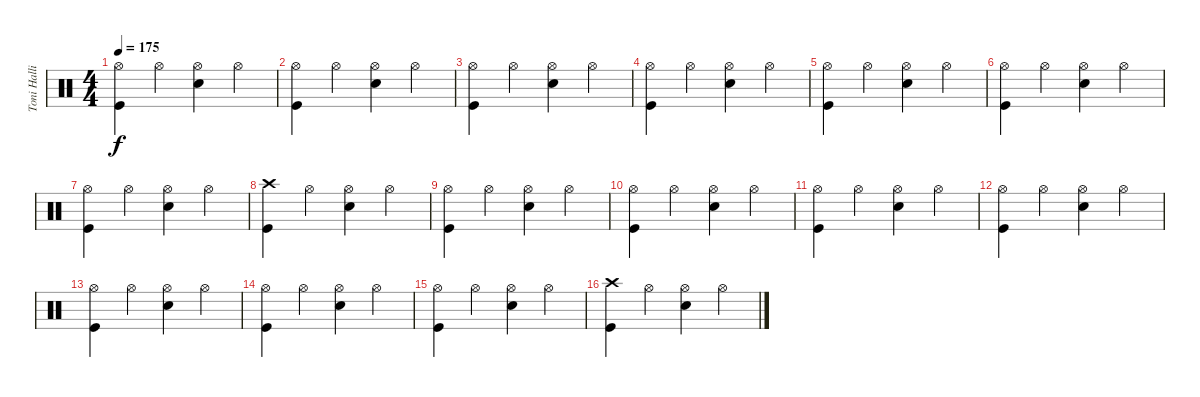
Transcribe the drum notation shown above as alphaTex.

\track ("Toni Hallio" "Toni Halli") {instrument percussion}
\staff {score}
\articulation defaults
\ts (4 4)
\tempo 175
\clef neutral
\ks c
("Hi-Hat (open)" "Kick (hit)").4{dy f} "Hi-Hat (open)".4 ("Hi-Hat (open)" "Snare (hit) 2").4 "Hi-Hat (open)".4 |
("Hi-Hat (open)" "Kick (hit)").4 "Hi-Hat (open)".4 ("Hi-Hat (open)" "Snare (hit) 2").4 "Hi-Hat (open)".4 |
("Hi-Hat (open)" "Kick (hit)").4 "Hi-Hat (open)".4 ("Hi-Hat (open)" "Snare (hit) 2").4 "Hi-Hat (open)".4 |
("Hi-Hat (open)" "Kick (hit)").4 "Hi-Hat (open)".4 ("Hi-Hat (open)" "Snare (hit) 2").4 "Hi-Hat (open)".4 |
("Hi-Hat (open)" "Kick (hit)").4 "Hi-Hat (open)".4 ("Hi-Hat (open)" "Snare (hit) 2").4 "Hi-Hat (open)".4 |
("Hi-Hat (open)" "Kick (hit)").4 "Hi-Hat (open)".4 ("Hi-Hat (open)" "Snare (hit) 2").4 "Hi-Hat (open)".4 |
("Hi-Hat (open)" "Kick (hit)").4 "Hi-Hat (open)".4 ("Hi-Hat (open)" "Snare (hit) 2").4 "Hi-Hat (open)".4 |
("Crash high (hit)" "Kick (hit)").4 "Hi-Hat (open)".4 ("Hi-Hat (open)" "Snare (hit) 2").4 "Hi-Hat (open)".4 |
("Hi-Hat (open)" "Kick (hit)").4 "Hi-Hat (open)".4 ("Hi-Hat (open)" "Snare (hit) 2").4 "Hi-Hat (open)".4 |
("Hi-Hat (open)" "Kick (hit)").4 "Hi-Hat (open)".4 ("Hi-Hat (open)" "Snare (hit) 2").4 "Hi-Hat (open)".4 |
("Hi-Hat (open)" "Kick (hit)").4 "Hi-Hat (open)".4 ("Hi-Hat (open)" "Snare (hit) 2").4 "Hi-Hat (open)".4 |
("Hi-Hat (open)" "Kick (hit)").4 "Hi-Hat (open)".4 ("Hi-Hat (open)" "Snare (hit) 2").4 "Hi-Hat (open)".4 |
("Hi-Hat (open)" "Kick (hit)").4 "Hi-Hat (open)".4 ("Hi-Hat (open)" "Snare (hit) 2").4 "Hi-Hat (open)".4 |
("Hi-Hat (open)" "Kick (hit)").4 "Hi-Hat (open)".4 ("Hi-Hat (open)" "Snare (hit) 2").4 "Hi-Hat (open)".4 |
("Hi-Hat (open)" "Kick (hit)").4 "Hi-Hat (open)".4 ("Hi-Hat (open)" "Snare (hit) 2").4 "Hi-Hat (open)".4 |
("Crash high (hit)" "Kick (hit)").4 "Hi-Hat (open)".4 ("Hi-Hat (open)" "Snare (hit) 2").4 "Hi-Hat (open)".4
